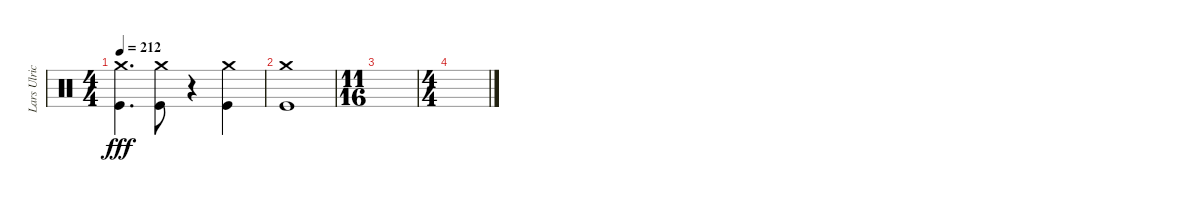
\track ("Lars Ulrich" "Lars Ulric") {instrument percussion}
\staff {score}
\articulation defaults
\ts (4 4)
\tempo 212
\clef neutral
\ks c
("Kick (hit)" "Crash medium (hit)").4{d dy fff} ("Kick (hit)" "Crash medium (hit)").8 r.4 ("Kick (hit)" "Crash medium (hit)").4 |
("Crash medium (hit)" "Kick (hit)").1 |
\ts (11 16)
|
\ts (4 4)
